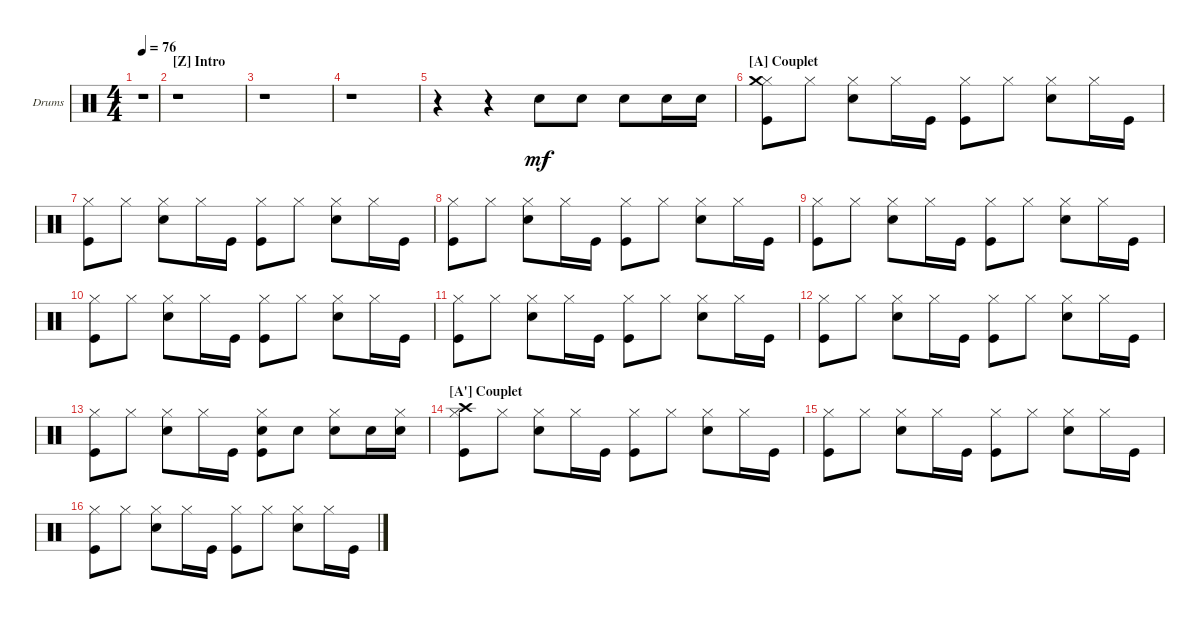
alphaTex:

\defaultSystemsLayout 4
\bracketExtendMode groupsimilarinstruments
\firstSystemTrackNameOrientation horizontal
\otherSystemsTrackNameOrientation horizontal
\track ("Drums" "Drums") {instrument percussion}
\staff {score}
\articulation defaults
\ts (4 4)
\ac
\tempo 76
\clef neutral
\ks c
r.1{dy mf} |
\section ("Z" "Intro")
r.1 |
r.1 |
r.1 |
r.4 r.4 "Snare (hit) 2".8 "Snare (hit) 2".8 "Snare (hit) 2".8 "Snare (hit) 2".16 "Snare (hit) 2".16 |
\section ("A" "Couplet")
("Kick (hit)" "Hi-Hat (closed)" "Crash medium (hit)").8 "Hi-Hat (closed)".8 ("Hi-Hat (closed)" "Snare (hit) 2").8 "Hi-Hat (closed)".16 "Kick (hit)".16 ("Hi-Hat (closed)" "Kick (hit)").8 "Hi-Hat (closed)".8 ("Hi-Hat (closed)" "Snare (hit) 2").8 "Hi-Hat (closed)".16 "Kick (hit)".16 |
("Kick (hit)" "Hi-Hat (closed)").8 "Hi-Hat (closed)".8 ("Hi-Hat (closed)" "Snare (hit) 2").8 "Hi-Hat (closed)".16 "Kick (hit)".16 ("Hi-Hat (closed)" "Kick (hit)").8 "Hi-Hat (closed)".8 ("Hi-Hat (closed)" "Snare (hit) 2").8 "Hi-Hat (closed)".16 "Kick (hit)".16 |
("Kick (hit)" "Hi-Hat (closed)").8 "Hi-Hat (closed)".8 ("Hi-Hat (closed)" "Snare (hit) 2").8 "Hi-Hat (closed)".16 "Kick (hit)".16 ("Hi-Hat (closed)" "Kick (hit)").8 "Hi-Hat (closed)".8 ("Hi-Hat (closed)" "Snare (hit) 2").8 "Hi-Hat (closed)".16 "Kick (hit)".16 |
("Kick (hit)" "Hi-Hat (closed)").8 "Hi-Hat (closed)".8 ("Hi-Hat (closed)" "Snare (hit) 2").8 "Hi-Hat (closed)".16 "Kick (hit)".16 ("Hi-Hat (closed)" "Kick (hit)").8 "Hi-Hat (closed)".8 ("Hi-Hat (closed)" "Snare (hit) 2").8 "Hi-Hat (closed)".16 "Kick (hit)".16 |
("Kick (hit)" "Hi-Hat (closed)").8 "Hi-Hat (closed)".8 ("Hi-Hat (closed)" "Snare (hit) 2").8 "Hi-Hat (closed)".16 "Kick (hit)".16 ("Hi-Hat (closed)" "Kick (hit)").8 "Hi-Hat (closed)".8 ("Hi-Hat (closed)" "Snare (hit) 2").8 "Hi-Hat (closed)".16 "Kick (hit)".16 |
("Kick (hit)" "Hi-Hat (closed)").8 "Hi-Hat (closed)".8 ("Hi-Hat (closed)" "Snare (hit) 2").8 "Hi-Hat (closed)".16 "Kick (hit)".16 ("Hi-Hat (closed)" "Kick (hit)").8 "Hi-Hat (closed)".8 ("Hi-Hat (closed)" "Snare (hit) 2").8 "Hi-Hat (closed)".16 "Kick (hit)".16 |
("Kick (hit)" "Hi-Hat (closed)").8 "Hi-Hat (closed)".8 ("Hi-Hat (closed)" "Snare (hit) 2").8 "Hi-Hat (closed)".16 "Kick (hit)".16 ("Hi-Hat (closed)" "Kick (hit)").8 "Hi-Hat (closed)".8 ("Hi-Hat (closed)" "Snare (hit) 2").8 "Hi-Hat (closed)".16 "Kick (hit)".16 |
("Kick (hit)" "Hi-Hat (closed)").8 "Hi-Hat (closed)".8 ("Hi-Hat (closed)" "Snare (hit) 2").8 "Hi-Hat (closed)".16 "Kick (hit)".16 ("Hi-Hat (closed)" "Kick (hit)" "Snare (hit) 2").8 "Snare (hit) 2".8 ("Snare (hit) 2" "Hi-Hat (closed)").8 "Snare (hit) 2".16 ("Snare (hit) 2" "Hi-Hat (closed)").16 |
\section ("A'" "Couplet")
("Crash high (hit)" "Kick (hit)" "Hi-Hat (closed)").8 "Hi-Hat (closed)".8 ("Hi-Hat (closed)" "Snare (hit) 2").8 "Hi-Hat (closed)".16 "Kick (hit)".16 ("Hi-Hat (closed)" "Kick (hit)").8 "Hi-Hat (closed)".8 ("Hi-Hat (closed)" "Snare (hit) 2").8 "Hi-Hat (closed)".16 "Kick (hit)".16 |
("Kick (hit)" "Hi-Hat (closed)").8 "Hi-Hat (closed)".8 ("Hi-Hat (closed)" "Snare (hit) 2").8 "Hi-Hat (closed)".16 "Kick (hit)".16 ("Hi-Hat (closed)" "Kick (hit)").8 "Hi-Hat (closed)".8 ("Hi-Hat (closed)" "Snare (hit) 2").8 "Hi-Hat (closed)".16 "Kick (hit)".16 |
("Kick (hit)" "Hi-Hat (closed)").8 "Hi-Hat (closed)".8 ("Hi-Hat (closed)" "Snare (hit) 2").8 "Hi-Hat (closed)".16 "Kick (hit)".16 ("Hi-Hat (closed)" "Kick (hit)").8 "Hi-Hat (closed)".8 ("Hi-Hat (closed)" "Snare (hit) 2").8 "Hi-Hat (closed)".16 "Kick (hit)".16
